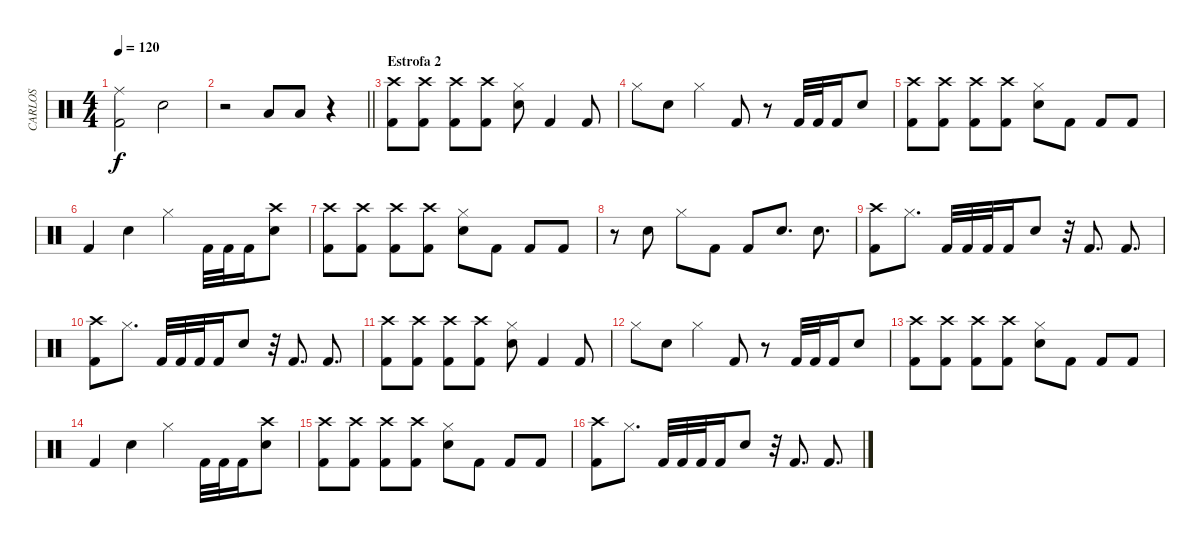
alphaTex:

\track ("CARLOS" "CARLOS") {instrument percussion}
\staff {score}
\articulation defaults
\ts (4 4)
\tempo 120
\clef neutral
\ks c
("Ride (middle)" "Kick (hit) 2").2{dy f} "Electric Snare (hit)".2 |
\barLineRight lightlight
r.2 "Low Tom (hit)".8 "Low Tom (hit)".8 r.4 |
\section ("" "Estrofa 2")
("Crash high (hit)" "Kick (hit) 2").8 ("Crash high (hit)" "Kick (hit) 2").8 ("Crash high (hit)" "Kick (hit) 2").8 ("Crash high (hit)" "Kick (hit) 2").8 ("Electric Snare (hit)" "Hi-Hat (closed)").8 "Kick (hit) 2".4 "Kick (hit) 2".8 |
"Hi-Hat (closed)".8 "Electric Snare (hit)".8 "Hi-Hat (closed)".4 "Kick (hit) 2".8 r.8 "Kick (hit) 2".32 "Kick (hit) 2".32 "Kick (hit) 2".16 "Electric Snare (hit)".8 |
("Crash high (hit)" "Kick (hit) 2").8 ("Crash high (hit)" "Kick (hit) 2").8 ("Crash high (hit)" "Kick (hit) 2").8 ("Crash high (hit)" "Kick (hit) 2").8 ("Electric Snare (hit)" "Hi-Hat (closed)").8 "Kick (hit) 2".8 "Kick (hit) 2".8 "Kick (hit) 2".8 |
"Kick (hit) 2".4 "Electric Snare (hit)".4 "Hi-Hat (closed)".4 "Kick (hit) 2".32 "Kick (hit) 2".32 "Kick (hit) 2".16 ("Electric Snare (hit)" "Crash high (hit)").8 |
("Crash high (hit)" "Kick (hit) 2").8 ("Crash high (hit)" "Kick (hit) 2").8 ("Crash high (hit)" "Kick (hit) 2").8 ("Crash high (hit)" "Kick (hit) 2").8 ("Electric Snare (hit)" "Hi-Hat (closed)").8 "Kick (hit) 2".8 "Kick (hit) 2".8 "Kick (hit) 2".8 |
r.8 "Electric Snare (hit)".8 "Hi-Hat (closed)".8 "Kick (hit) 2".8 "Kick (hit) 2".8 "Electric Snare (hit)".8{d} "Electric Snare (hit)".8{d} |
("Kick (hit) 2" "Crash high (hit)").8 "Hi-Hat (closed)".8{d} "Kick (hit) 2".32 "Kick (hit) 2".32 "Kick (hit) 2".32 "Kick (hit) 2".16 "Electric Snare (hit)".8 r.32 "Kick (hit) 2".8{d} "Kick (hit) 2".8{d} |
("Kick (hit) 2" "Crash high (hit)").8 "Hi-Hat (closed)".8{d} "Kick (hit) 2".32 "Kick (hit) 2".32 "Kick (hit) 2".32 "Kick (hit) 2".16 "Electric Snare (hit)".8 r.32 "Kick (hit) 2".8{d} "Kick (hit) 2".8{d} |
("Crash high (hit)" "Kick (hit) 2").8 ("Crash high (hit)" "Kick (hit) 2").8 ("Crash high (hit)" "Kick (hit) 2").8 ("Crash high (hit)" "Kick (hit) 2").8 ("Electric Snare (hit)" "Hi-Hat (closed)").8 "Kick (hit) 2".4 "Kick (hit) 2".8 |
"Hi-Hat (closed)".8 "Electric Snare (hit)".8 "Hi-Hat (closed)".4 "Kick (hit) 2".8 r.8 "Kick (hit) 2".32 "Kick (hit) 2".32 "Kick (hit) 2".16 "Electric Snare (hit)".8 |
("Crash high (hit)" "Kick (hit) 2").8 ("Crash high (hit)" "Kick (hit) 2").8 ("Crash high (hit)" "Kick (hit) 2").8 ("Crash high (hit)" "Kick (hit) 2").8 ("Electric Snare (hit)" "Hi-Hat (closed)").8 "Kick (hit) 2".8 "Kick (hit) 2".8 "Kick (hit) 2".8 |
"Kick (hit) 2".4 "Electric Snare (hit)".4 "Hi-Hat (closed)".4 "Kick (hit) 2".32 "Kick (hit) 2".32 "Kick (hit) 2".16 ("Electric Snare (hit)" "Crash high (hit)").8 |
("Crash high (hit)" "Kick (hit) 2").8 ("Crash high (hit)" "Kick (hit) 2").8 ("Crash high (hit)" "Kick (hit) 2").8 ("Crash high (hit)" "Kick (hit) 2").8 ("Electric Snare (hit)" "Hi-Hat (closed)").8 "Kick (hit) 2".8 "Kick (hit) 2".8 "Kick (hit) 2".8 |
("Kick (hit) 2" "Crash high (hit)").8 "Hi-Hat (closed)".8{d} "Kick (hit) 2".32 "Kick (hit) 2".32 "Kick (hit) 2".32 "Kick (hit) 2".16 "Electric Snare (hit)".8 r.32 "Kick (hit) 2".8{d} "Kick (hit) 2".8{d}
